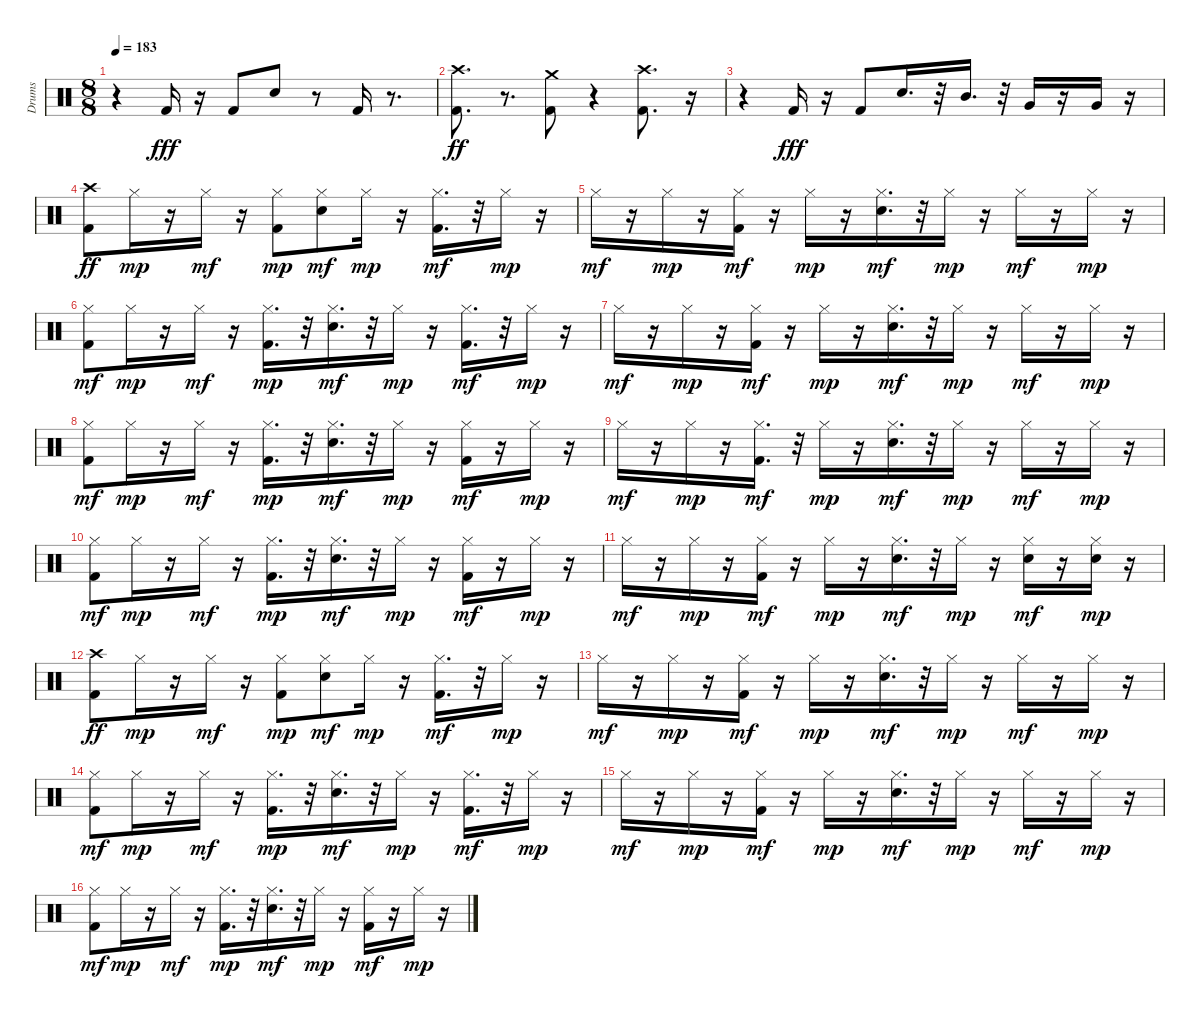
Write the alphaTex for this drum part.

\track ("Drums" "Drums") {instrument percussion}
\staff {score}
\articulation defaults
\ts (8 8)
\tempo 183
\clef neutral
\ks c
r.4{dy ff} "Kick (hit) 2".16{dy fff} r.16 "Kick (hit) 2".8 "Snare (hit) 2".8 r.8 "Kick (hit) 2".16 r.8{d} |
("Kick (hit) 2" "Crash high (hit)").8{d dy ff} r.8{d} ("Kick (hit) 2" "Crash medium (hit)").8 r.4 ("Kick (hit) 2" "Crash high (hit)").8{d} r.16 |
r.4 "Kick (hit) 2".16{dy fff} r.16 "Kick (hit) 2".8 "Snare (hit) 2".16{d} r.32 "Mid Tom (hit)".16{d} r.32 "Very Low Tom (hit)".16 r.16 "Very Low Tom (hit)".16 r.16 |
("Kick (hit) 2" "Crash high (hit)").8{dy ff} "Hi-Hat (closed)".16{dy mp} r.16 "Hi-Hat (closed)".16{dy mf} r.16 ("Kick (hit) 2" "Hi-Hat (closed)").8{dy mp} ("Snare (hit) 2" "Hi-Hat (closed)").8{dy mf} "Hi-Hat (closed)".16{dy mp} r.16 ("Kick (hit) 2" "Hi-Hat (closed)").16{d dy mf} r.32 "Hi-Hat (closed)".16{dy mp} r.16 |
"Hi-Hat (closed)".16{dy mf} r.16 "Hi-Hat (closed)".16{dy mp} r.16 ("Kick (hit) 2" "Hi-Hat (closed)").16{dy mf} r.16 "Hi-Hat (closed)".16{dy mp} r.16 ("Snare (hit) 2" "Hi-Hat (closed)").16{d dy mf} r.32 "Hi-Hat (closed)".16{dy mp} r.16 "Hi-Hat (closed)".16{dy mf} r.16 "Hi-Hat (closed)".16{dy mp} r.16 |
("Kick (hit) 2" "Hi-Hat (closed)").8{dy mf} "Hi-Hat (closed)".16{dy mp} r.16 "Hi-Hat (closed)".16{dy mf} r.16 ("Kick (hit) 2" "Hi-Hat (closed)").16{d dy mp} r.32 ("Snare (hit) 2" "Hi-Hat (closed)").16{d dy mf} r.32 "Hi-Hat (closed)".16{dy mp} r.16 ("Kick (hit) 2" "Hi-Hat (closed)").16{d dy mf} r.32 "Hi-Hat (closed)".16{dy mp} r.16 |
"Hi-Hat (closed)".16{dy mf} r.16 "Hi-Hat (closed)".16{dy mp} r.16 ("Kick (hit) 2" "Hi-Hat (closed)").16{dy mf} r.16 "Hi-Hat (closed)".16{dy mp} r.16 ("Snare (hit) 2" "Hi-Hat (closed)").16{d dy mf} r.32 "Hi-Hat (closed)".16{dy mp} r.16 "Hi-Hat (closed)".16{dy mf} r.16 "Hi-Hat (closed)".16{dy mp} r.16 |
("Kick (hit) 2" "Hi-Hat (closed)").8{dy mf} "Hi-Hat (closed)".16{dy mp} r.16 "Hi-Hat (closed)".16{dy mf} r.16 ("Kick (hit) 2" "Hi-Hat (closed)").16{d dy mp} r.32 ("Snare (hit) 2" "Hi-Hat (closed)").16{d dy mf} r.32 "Hi-Hat (closed)".16{dy mp} r.16 ("Kick (hit) 2" "Hi-Hat (closed)").16{dy mf} r.16 "Hi-Hat (closed)".16{dy mp} r.16 |
"Hi-Hat (closed)".16{dy mf} r.16 "Hi-Hat (closed)".16{dy mp} r.16 ("Kick (hit) 2" "Hi-Hat (closed)").16{d dy mf} r.32 "Hi-Hat (closed)".16{dy mp} r.16 ("Snare (hit) 2" "Hi-Hat (closed)").16{d dy mf} r.32 "Hi-Hat (closed)".16{dy mp} r.16 "Hi-Hat (closed)".16{dy mf} r.16 "Hi-Hat (closed)".16{dy mp} r.16 |
("Kick (hit) 2" "Hi-Hat (closed)").8{dy mf} "Hi-Hat (closed)".16{dy mp} r.16 "Hi-Hat (closed)".16{dy mf} r.16 ("Kick (hit) 2" "Hi-Hat (closed)").16{d dy mp} r.32 ("Snare (hit) 2" "Hi-Hat (closed)").16{d dy mf} r.32 "Hi-Hat (closed)".16{dy mp} r.16 ("Kick (hit) 2" "Hi-Hat (closed)").16{dy mf} r.16 "Hi-Hat (closed)".16{dy mp} r.16 |
"Hi-Hat (closed)".16{dy mf} r.16 "Hi-Hat (closed)".16{dy mp} r.16 ("Kick (hit) 2" "Hi-Hat (closed)").16{dy mf} r.16 "Hi-Hat (closed)".16{dy mp} r.16 ("Snare (hit) 2" "Hi-Hat (closed)").16{d dy mf} r.32 "Hi-Hat (closed)".16{dy mp} r.16 ("Snare (hit) 2" "Hi-Hat (closed)").16{dy mf} r.16 ("Snare (hit) 2" "Hi-Hat (closed)").16{dy mp} r.16 |
("Kick (hit) 2" "Crash high (hit)").8{dy ff} "Hi-Hat (closed)".16{dy mp} r.16 "Hi-Hat (closed)".16{dy mf} r.16 ("Kick (hit) 2" "Hi-Hat (closed)").8{dy mp} ("Snare (hit) 2" "Hi-Hat (closed)").8{dy mf} "Hi-Hat (closed)".16{dy mp} r.16 ("Kick (hit) 2" "Hi-Hat (closed)").16{d dy mf} r.32 "Hi-Hat (closed)".16{dy mp} r.16 |
"Hi-Hat (closed)".16{dy mf} r.16 "Hi-Hat (closed)".16{dy mp} r.16 ("Kick (hit) 2" "Hi-Hat (closed)").16{dy mf} r.16 "Hi-Hat (closed)".16{dy mp} r.16 ("Snare (hit) 2" "Hi-Hat (closed)").16{d dy mf} r.32 "Hi-Hat (closed)".16{dy mp} r.16 "Hi-Hat (closed)".16{dy mf} r.16 "Hi-Hat (closed)".16{dy mp} r.16 |
("Kick (hit) 2" "Hi-Hat (closed)").8{dy mf} "Hi-Hat (closed)".16{dy mp} r.16 "Hi-Hat (closed)".16{dy mf} r.16 ("Kick (hit) 2" "Hi-Hat (closed)").16{d dy mp} r.32 ("Snare (hit) 2" "Hi-Hat (closed)").16{d dy mf} r.32 "Hi-Hat (closed)".16{dy mp} r.16 ("Kick (hit) 2" "Hi-Hat (closed)").16{d dy mf} r.32 "Hi-Hat (closed)".16{dy mp} r.16 |
"Hi-Hat (closed)".16{dy mf} r.16 "Hi-Hat (closed)".16{dy mp} r.16 ("Kick (hit) 2" "Hi-Hat (closed)").16{dy mf} r.16 "Hi-Hat (closed)".16{dy mp} r.16 ("Snare (hit) 2" "Hi-Hat (closed)").16{d dy mf} r.32 "Hi-Hat (closed)".16{dy mp} r.16 "Hi-Hat (closed)".16{dy mf} r.16 "Hi-Hat (closed)".16{dy mp} r.16 |
("Kick (hit) 2" "Hi-Hat (closed)").8{dy mf} "Hi-Hat (closed)".16{dy mp} r.16 "Hi-Hat (closed)".16{dy mf} r.16 ("Kick (hit) 2" "Hi-Hat (closed)").16{d dy mp} r.32 ("Snare (hit) 2" "Hi-Hat (closed)").16{d dy mf} r.32 "Hi-Hat (closed)".16{dy mp} r.16 ("Kick (hit) 2" "Hi-Hat (closed)").16{dy mf} r.16 "Hi-Hat (closed)".16{dy mp} r.16
